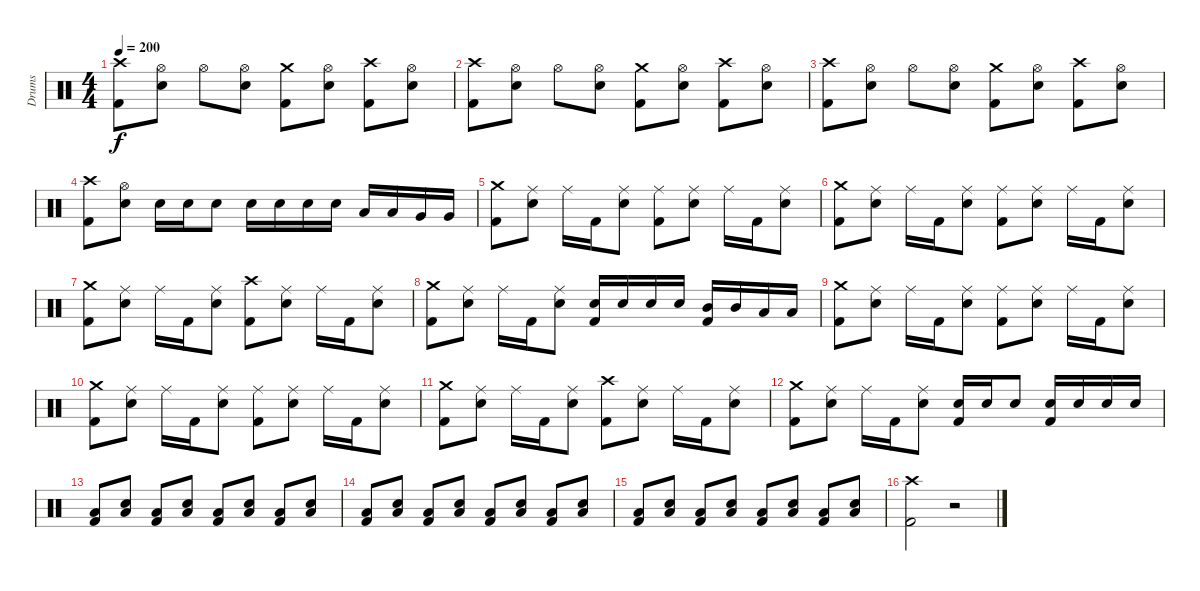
\track ("Drums" "Drums") {instrument percussion}
\staff {score}
\articulation defaults
\ts (4 4)
\tempo 200
\clef neutral
\ks c
("Crash high (hit)" "Kick (hit) 2").8{dy f} ("Hi-Hat (open)" "Electric Snare (hit)").8 "Hi-Hat (open)".8 ("Hi-Hat (open)" "Electric Snare (hit)").8 ("Crash medium (hit)" "Kick (hit) 2").8 ("Hi-Hat (open)" "Electric Snare (hit)").8 ("Crash high (hit)" "Kick (hit) 2").8 ("Hi-Hat (open)" "Electric Snare (hit)").8 |
("Crash high (hit)" "Kick (hit) 2").8 ("Hi-Hat (open)" "Electric Snare (hit)").8 "Hi-Hat (open)".8 ("Hi-Hat (open)" "Electric Snare (hit)").8 ("Crash medium (hit)" "Kick (hit) 2").8 ("Hi-Hat (open)" "Electric Snare (hit)").8 ("Crash high (hit)" "Kick (hit) 2").8 ("Hi-Hat (open)" "Electric Snare (hit)").8 |
("Crash high (hit)" "Kick (hit) 2").8 ("Hi-Hat (open)" "Electric Snare (hit)").8 "Hi-Hat (open)".8 ("Hi-Hat (open)" "Electric Snare (hit)").8 ("Crash medium (hit)" "Kick (hit) 2").8 ("Hi-Hat (open)" "Electric Snare (hit)").8 ("Crash high (hit)" "Kick (hit) 2").8 ("Hi-Hat (open)" "Electric Snare (hit)").8 |
("Crash high (hit)" "Kick (hit) 2").8 ("Hi-Hat (open)" "Electric Snare (hit)").8 "Electric Snare (hit)".16 "Electric Snare (hit)".16 "Electric Snare (hit)".8 "Electric Snare (hit)".16 "Electric Snare (hit)".16 "Electric Snare (hit)".16 "Electric Snare (hit)".16 "Low Tom (hit)".16 "Low Tom (hit)".16 "Very Low Tom (hit)".16 "Very Low Tom (hit)".16 |
("Crash medium (hit)" "Kick (hit) 2").8 ("Ride (middle)" "Electric Snare (hit)").8 "Ride (middle)".16 "Kick (hit) 2".16 ("Ride (middle)" "Electric Snare (hit)").8 ("Ride (middle)" "Kick (hit) 2").8 ("Ride (middle)" "Electric Snare (hit)").8 "Ride (middle)".16 "Kick (hit) 2".16 ("Ride (middle)" "Electric Snare (hit)").8 |
("Crash medium (hit)" "Kick (hit) 2").8 ("Ride (middle)" "Electric Snare (hit)").8 "Ride (middle)".16 "Kick (hit) 2".16 ("Ride (middle)" "Electric Snare (hit)").8 ("Ride (middle)" "Kick (hit) 2").8 ("Ride (middle)" "Electric Snare (hit)").8 "Ride (middle)".16 "Kick (hit) 2".16 ("Ride (middle)" "Electric Snare (hit)").8 |
("Crash medium (hit)" "Kick (hit) 2").8 ("Ride (middle)" "Electric Snare (hit)").8 "Ride (middle)".16 "Kick (hit) 2".16 ("Ride (middle)" "Electric Snare (hit)").8 ("Crash high (hit)" "Kick (hit) 2").8 ("Ride (middle)" "Electric Snare (hit)").8 "Ride (middle)".16 "Kick (hit) 2".16 ("Ride (middle)" "Electric Snare (hit)").8 |
("Crash medium (hit)" "Kick (hit) 2").8 ("Ride (middle)" "Electric Snare (hit)").8 "Ride (middle)".16 "Kick (hit) 2".16 ("Ride (middle)" "Electric Snare (hit)").8 ("Electric Snare (hit)" "Kick (hit) 2").16 "Electric Snare (hit)".16 "Electric Snare (hit)".16 "Electric Snare (hit)".16 ("Mid Tom (hit)" "Kick (hit) 2").16 "Mid Tom (hit)".16 "Low Tom (hit)".16 "Low Tom (hit)".16 |
("Crash medium (hit)" "Kick (hit) 2").8 ("Ride (middle)" "Electric Snare (hit)").8 "Ride (middle)".16 "Kick (hit) 2".16 ("Ride (middle)" "Electric Snare (hit)").8 ("Ride (middle)" "Kick (hit) 2").8 ("Ride (middle)" "Electric Snare (hit)").8 "Ride (middle)".16 "Kick (hit) 2".16 ("Ride (middle)" "Electric Snare (hit)").8 |
("Crash medium (hit)" "Kick (hit) 2").8 ("Ride (middle)" "Electric Snare (hit)").8 "Ride (middle)".16 "Kick (hit) 2".16 ("Ride (middle)" "Electric Snare (hit)").8 ("Ride (middle)" "Kick (hit) 2").8 ("Ride (middle)" "Electric Snare (hit)").8 "Ride (middle)".16 "Kick (hit) 2".16 ("Ride (middle)" "Electric Snare (hit)").8 |
("Crash medium (hit)" "Kick (hit) 2").8 ("Ride (middle)" "Electric Snare (hit)").8 "Ride (middle)".16 "Kick (hit) 2".16 ("Ride (middle)" "Electric Snare (hit)").8 ("Crash high (hit)" "Kick (hit) 2").8 ("Ride (middle)" "Electric Snare (hit)").8 "Ride (middle)".16 "Kick (hit) 2".16 ("Ride (middle)" "Electric Snare (hit)").8 |
("Crash medium (hit)" "Kick (hit) 2").8 ("Ride (middle)" "Electric Snare (hit)").8 "Ride (middle)".16 "Kick (hit) 2".16 ("Ride (middle)" "Electric Snare (hit)").8 ("Electric Snare (hit)" "Kick (hit) 2").16 "Electric Snare (hit)".16 "Electric Snare (hit)".8 ("Electric Snare (hit)" "Kick (hit) 2").16 "Electric Snare (hit)".16 "Electric Snare (hit)".16 "Electric Snare (hit)".16 |
("Low Tom (hit)" "Kick (hit) 2").8 ("Low Tom (hit)" "Electric Snare (hit)").8 ("Low Tom (hit)" "Kick (hit) 2").8 ("Low Tom (hit)" "Electric Snare (hit)").8 ("Low Tom (hit)" "Kick (hit) 2").8 ("Low Tom (hit)" "Electric Snare (hit)").8 ("Low Tom (hit)" "Kick (hit) 2").8 ("Low Tom (hit)" "Electric Snare (hit)").8 |
("Low Tom (hit)" "Kick (hit) 2").8 ("Low Tom (hit)" "Electric Snare (hit)").8 ("Low Tom (hit)" "Kick (hit) 2").8 ("Low Tom (hit)" "Electric Snare (hit)").8 ("Low Tom (hit)" "Kick (hit) 2").8 ("Low Tom (hit)" "Electric Snare (hit)").8 ("Low Tom (hit)" "Kick (hit) 2").8 ("Low Tom (hit)" "Electric Snare (hit)").8 |
("Low Tom (hit)" "Kick (hit) 2").8 ("Low Tom (hit)" "Electric Snare (hit)").8 ("Low Tom (hit)" "Kick (hit) 2").8 ("Low Tom (hit)" "Electric Snare (hit)").8 ("Low Tom (hit)" "Kick (hit) 2").8 ("Low Tom (hit)" "Electric Snare (hit)").8 ("Low Tom (hit)" "Kick (hit) 2").8 ("Low Tom (hit)" "Electric Snare (hit)").8 |
("Crash high (hit)" "Kick (hit) 2").2 r.2
